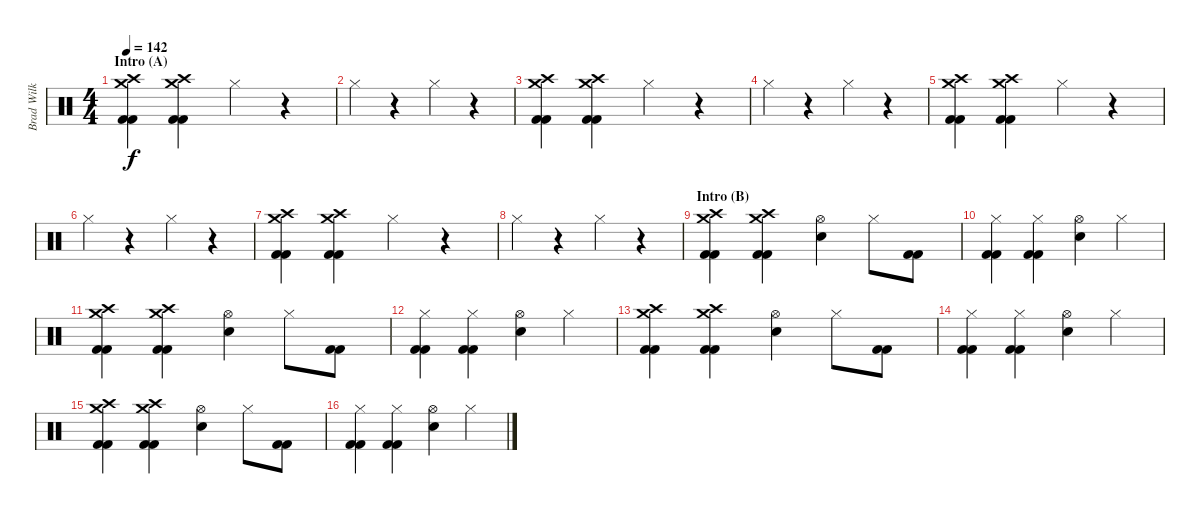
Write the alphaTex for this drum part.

\track ("Brad Wilk" "Brad Wilk") {instrument percussion}
\staff {score}
\articulation defaults
\ts (4 4)
\section ("" "Intro (A)")
\tempo 142
\clef neutral
\ks c
("Crash medium (hit)" "Crash high (hit)" "Kick (hit) 2" "Kick (hit) 2").4{dy f} ("Crash medium (hit)" "Crash high (hit)" "Kick (hit) 2" "Kick (hit) 2").4 "Hi-Hat (closed)".4 r.4 |
"Hi-Hat (closed)".4 r.4 "Hi-Hat (closed)".4 r.4 |
("Crash medium (hit)" "Crash high (hit)" "Kick (hit) 2" "Kick (hit) 2").4 ("Crash medium (hit)" "Crash high (hit)" "Kick (hit) 2" "Kick (hit) 2").4 "Hi-Hat (closed)".4 r.4 |
"Hi-Hat (closed)".4 r.4 "Hi-Hat (closed)".4 r.4 |
("Crash medium (hit)" "Crash high (hit)" "Kick (hit) 2" "Kick (hit) 2").4 ("Crash medium (hit)" "Crash high (hit)" "Kick (hit) 2" "Kick (hit) 2").4 "Hi-Hat (closed)".4 r.4 |
"Hi-Hat (closed)".4 r.4 "Hi-Hat (closed)".4 r.4 |
("Crash medium (hit)" "Crash high (hit)" "Kick (hit) 2" "Kick (hit) 2").4 ("Crash medium (hit)" "Crash high (hit)" "Kick (hit) 2" "Kick (hit) 2").4 "Hi-Hat (closed)".4 r.4 |
"Hi-Hat (closed)".4 r.4 "Hi-Hat (closed)".4 r.4 |
\section ("" "Intro (B)")
("Crash medium (hit)" "Crash high (hit)" "Kick (hit) 2" "Kick (hit) 2").4 ("Crash medium (hit)" "Crash high (hit)" "Kick (hit) 2" "Kick (hit) 2").4 ("Hi-Hat (open)" "Electric Snare (hit)").4 "Hi-Hat (closed)".8 ("Kick (hit) 2" "Kick (hit) 2").8 |
("Hi-Hat (closed)" "Kick (hit) 2" "Kick (hit) 2").4 ("Hi-Hat (closed)" "Kick (hit) 2" "Kick (hit) 2").4 ("Hi-Hat (open)" "Electric Snare (hit)").4 "Hi-Hat (closed)".4 |
("Crash medium (hit)" "Crash high (hit)" "Kick (hit) 2" "Kick (hit) 2").4 ("Crash medium (hit)" "Crash high (hit)" "Kick (hit) 2" "Kick (hit) 2").4 ("Hi-Hat (open)" "Electric Snare (hit)").4 "Hi-Hat (closed)".8 ("Kick (hit) 2" "Kick (hit) 2").8 |
("Hi-Hat (closed)" "Kick (hit) 2" "Kick (hit) 2").4 ("Hi-Hat (closed)" "Kick (hit) 2" "Kick (hit) 2").4 ("Hi-Hat (open)" "Electric Snare (hit)").4 "Hi-Hat (closed)".4 |
("Crash medium (hit)" "Crash high (hit)" "Kick (hit) 2" "Kick (hit) 2").4 ("Crash medium (hit)" "Crash high (hit)" "Kick (hit) 2" "Kick (hit) 2").4 ("Hi-Hat (open)" "Electric Snare (hit)").4 "Hi-Hat (closed)".8 ("Kick (hit) 2" "Kick (hit) 2").8 |
("Hi-Hat (closed)" "Kick (hit) 2" "Kick (hit) 2").4 ("Hi-Hat (closed)" "Kick (hit) 2" "Kick (hit) 2").4 ("Hi-Hat (open)" "Electric Snare (hit)").4 "Hi-Hat (closed)".4 |
("Crash medium (hit)" "Crash high (hit)" "Kick (hit) 2" "Kick (hit) 2").4 ("Crash medium (hit)" "Crash high (hit)" "Kick (hit) 2" "Kick (hit) 2").4 ("Hi-Hat (open)" "Electric Snare (hit)").4 "Hi-Hat (closed)".8 ("Kick (hit) 2" "Kick (hit) 2").8 |
("Hi-Hat (closed)" "Kick (hit) 2" "Kick (hit) 2").4 ("Hi-Hat (closed)" "Kick (hit) 2" "Kick (hit) 2").4 ("Hi-Hat (open)" "Electric Snare (hit)").4 "Hi-Hat (closed)".4
